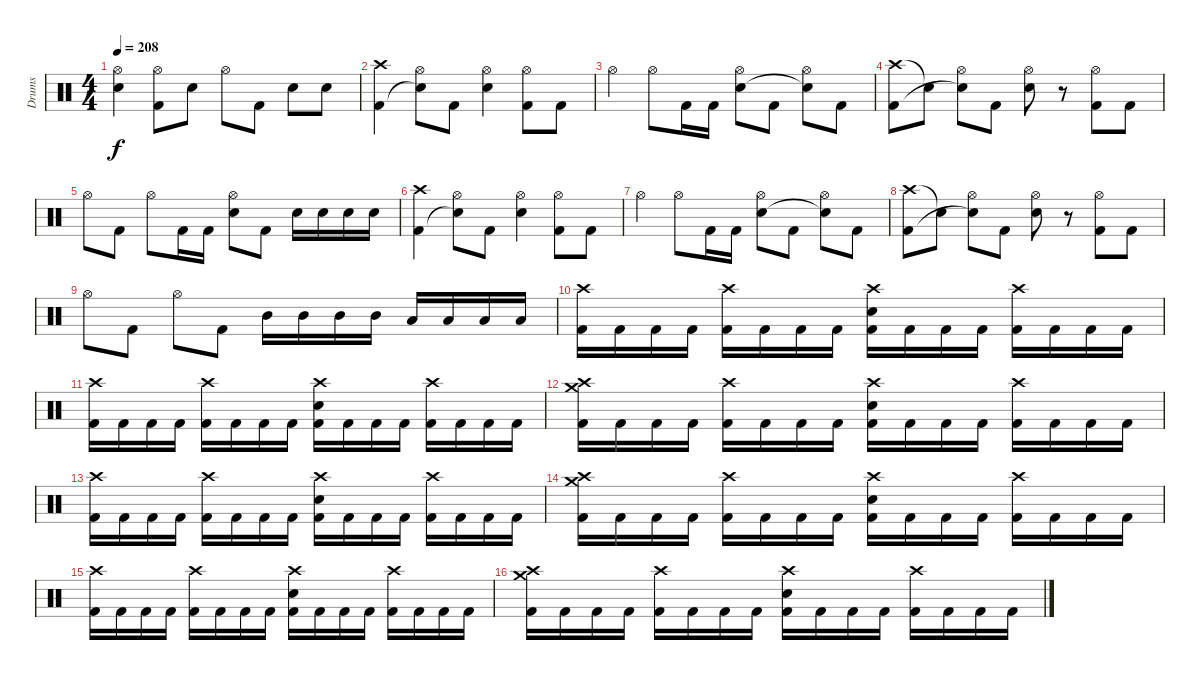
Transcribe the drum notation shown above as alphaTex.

\track ("Drums" "Drums") {instrument percussion}
\staff {score}
\articulation defaults
\ts (4 4)
\tempo 208
\clef neutral
\ks c
("Hi-Hat (open)" "Snare (hit) 2").4{dy f} ("Hi-Hat (open)" "Kick (hit) 2").8 "Snare (hit) 2".8 "Hi-Hat (open)".8 "Kick (hit) 2".8 "Snare (hit) 2".8 "Snare (hit) 2".8 |
("Crash high (hit)" "Kick (hit) 2").4 ("Hi-Hat (open)" "Snare (hit)"{t}).8 "Kick (hit) 2".8 ("Hi-Hat (open)" "Snare (hit) 2").4 ("Hi-Hat (open)" "Kick (hit) 2").8 "Kick (hit) 2".8 |
"Hi-Hat (open)".4 "Hi-Hat (open)".8 "Kick (hit) 2".16 "Kick (hit) 2".16 ("Hi-Hat (open)" "Snare (hit) 2").8 "Kick (hit) 2".8 ("Hi-Hat (open)" "Snare (hit)"{t}).8 "Kick (hit) 2".8 |
("Crash high (hit)" "Kick (hit) 2").8 "Snare (hit)"{t}.8 ("Hi-Hat (open)" "Snare (hit)"{t}).8 "Kick (hit) 2".8 ("Hi-Hat (open)" "Snare (hit) 2").8 r.8 ("Hi-Hat (open)" "Kick (hit) 2").8 "Kick (hit) 2".8 |
"Hi-Hat (open)".8 "Kick (hit) 2".8 "Hi-Hat (open)".8 "Kick (hit) 2".16 "Kick (hit) 2".16 ("Hi-Hat (open)" "Snare (hit) 2").8 "Kick (hit) 2".8 "Snare (hit) 2".16 "Snare (hit) 2".16 "Snare (hit) 2".16 "Snare (hit) 2".16 |
("Crash high (hit)" "Kick (hit) 2").4 ("Hi-Hat (open)" "Snare (hit)"{t}).8 "Kick (hit) 2".8 ("Hi-Hat (open)" "Snare (hit) 2").4 ("Hi-Hat (open)" "Kick (hit) 2").8 "Kick (hit) 2".8 |
"Hi-Hat (open)".4 "Hi-Hat (open)".8 "Kick (hit) 2".16 "Kick (hit) 2".16 ("Hi-Hat (open)" "Snare (hit) 2").8 "Kick (hit) 2".8 ("Hi-Hat (open)" "Snare (hit)"{t}).8 "Kick (hit) 2".8 |
("Crash high (hit)" "Kick (hit) 2").8 "Snare (hit)"{t}.8 ("Hi-Hat (open)" "Snare (hit)"{t}).8 "Kick (hit) 2".8 ("Hi-Hat (open)" "Snare (hit) 2").8 r.8 ("Hi-Hat (open)" "Kick (hit) 2").8 "Kick (hit) 2".8 |
"Hi-Hat (open)".8 "Kick (hit) 2".8 "Hi-Hat (open)".8 "Kick (hit) 2".8 "Mid Tom (hit)".16 "Mid Tom (hit)".16 "Mid Tom (hit)".16 "Mid Tom (hit)".16 "Low Tom (hit)".16 "Low Tom (hit)".16 "Low Tom (hit)".16 "Low Tom (hit)".16 |
("Crash high (hit)" "Kick (hit) 2").16 "Kick (hit) 2".16 "Kick (hit) 2".16 "Kick (hit) 2".16 ("Crash high (hit)" "Kick (hit) 2").16 "Kick (hit) 2".16 "Kick (hit) 2".16 "Kick (hit) 2".16 ("Crash high (hit)" "Snare (hit) 2" "Kick (hit) 2").16 "Kick (hit) 2".16 "Kick (hit) 2".16 "Kick (hit) 2".16 ("Crash high (hit)" "Kick (hit) 2").16 "Kick (hit) 2".16 "Kick (hit) 2".16 "Kick (hit) 2".16 |
("Crash high (hit)" "Kick (hit) 2").16 "Kick (hit) 2".16 "Kick (hit) 2".16 "Kick (hit) 2".16 ("Crash high (hit)" "Kick (hit) 2").16 "Kick (hit) 2".16 "Kick (hit) 2".16 "Kick (hit) 2".16 ("Crash high (hit)" "Snare (hit) 2" "Kick (hit) 2").16 "Kick (hit) 2".16 "Kick (hit) 2".16 "Kick (hit) 2".16 ("Crash high (hit)" "Kick (hit) 2").16 "Kick (hit) 2".16 "Kick (hit) 2".16 "Kick (hit) 2".16 |
("Crash high (hit)" "Crash medium (hit)" "Kick (hit) 2").16 "Kick (hit) 2".16 "Kick (hit) 2".16 "Kick (hit) 2".16 ("Crash high (hit)" "Kick (hit) 2").16 "Kick (hit) 2".16 "Kick (hit) 2".16 "Kick (hit) 2".16 ("Crash high (hit)" "Snare (hit) 2" "Kick (hit) 2").16 "Kick (hit) 2".16 "Kick (hit) 2".16 "Kick (hit) 2".16 ("Crash high (hit)" "Kick (hit) 2").16 "Kick (hit) 2".16 "Kick (hit) 2".16 "Kick (hit) 2".16 |
("Crash high (hit)" "Kick (hit) 2").16 "Kick (hit) 2".16 "Kick (hit) 2".16 "Kick (hit) 2".16 ("Crash high (hit)" "Kick (hit) 2").16 "Kick (hit) 2".16 "Kick (hit) 2".16 "Kick (hit) 2".16 ("Crash high (hit)" "Snare (hit) 2" "Kick (hit) 2").16 "Kick (hit) 2".16 "Kick (hit) 2".16 "Kick (hit) 2".16 ("Crash high (hit)" "Kick (hit) 2").16 "Kick (hit) 2".16 "Kick (hit) 2".16 "Kick (hit) 2".16 |
("Crash high (hit)" "Crash medium (hit)" "Kick (hit) 2").16 "Kick (hit) 2".16 "Kick (hit) 2".16 "Kick (hit) 2".16 ("Crash high (hit)" "Kick (hit) 2").16 "Kick (hit) 2".16 "Kick (hit) 2".16 "Kick (hit) 2".16 ("Crash high (hit)" "Snare (hit) 2" "Kick (hit) 2").16 "Kick (hit) 2".16 "Kick (hit) 2".16 "Kick (hit) 2".16 ("Crash high (hit)" "Kick (hit) 2").16 "Kick (hit) 2".16 "Kick (hit) 2".16 "Kick (hit) 2".16 |
("Crash high (hit)" "Kick (hit) 2").16 "Kick (hit) 2".16 "Kick (hit) 2".16 "Kick (hit) 2".16 ("Crash high (hit)" "Kick (hit) 2").16 "Kick (hit) 2".16 "Kick (hit) 2".16 "Kick (hit) 2".16 ("Crash high (hit)" "Snare (hit) 2" "Kick (hit) 2").16 "Kick (hit) 2".16 "Kick (hit) 2".16 "Kick (hit) 2".16 ("Crash high (hit)" "Kick (hit) 2").16 "Kick (hit) 2".16 "Kick (hit) 2".16 "Kick (hit) 2".16 |
("Crash high (hit)" "Crash medium (hit)" "Kick (hit) 2").16 "Kick (hit) 2".16 "Kick (hit) 2".16 "Kick (hit) 2".16 ("Crash high (hit)" "Kick (hit) 2").16 "Kick (hit) 2".16 "Kick (hit) 2".16 "Kick (hit) 2".16 ("Crash high (hit)" "Snare (hit) 2" "Kick (hit) 2").16 "Kick (hit) 2".16 "Kick (hit) 2".16 "Kick (hit) 2".16 ("Crash high (hit)" "Kick (hit) 2").16 "Kick (hit) 2".16 "Kick (hit) 2".16 "Kick (hit) 2".16
